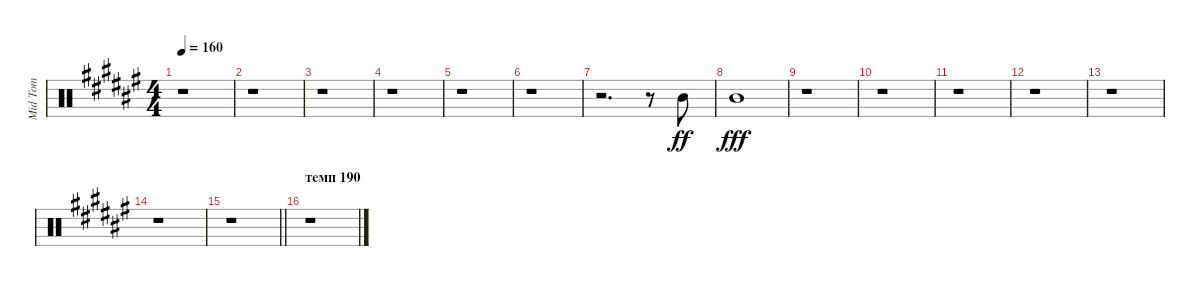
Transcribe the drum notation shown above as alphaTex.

\track ("Mid Tom" "Mid Tom") {instrument percussion}
\staff {score}
\articulation defaults
\ts (4 4)
\tempo 160
\clef neutral
\ks d#minor
r.1{dy ff} |
r.1 |
r.1 |
r.1 |
r.1 |
r.1 |
r.2{d} r.8 "Mid Tom (hit)".8 |
"Mid Tom (hit)".1{dy fff} |
r.1 |
r.1 |
r.1 |
r.1 |
r.1 |
r.1 |
\barLineRight lightlight
r.1 |
\section ("" "темп 190")
r.1
